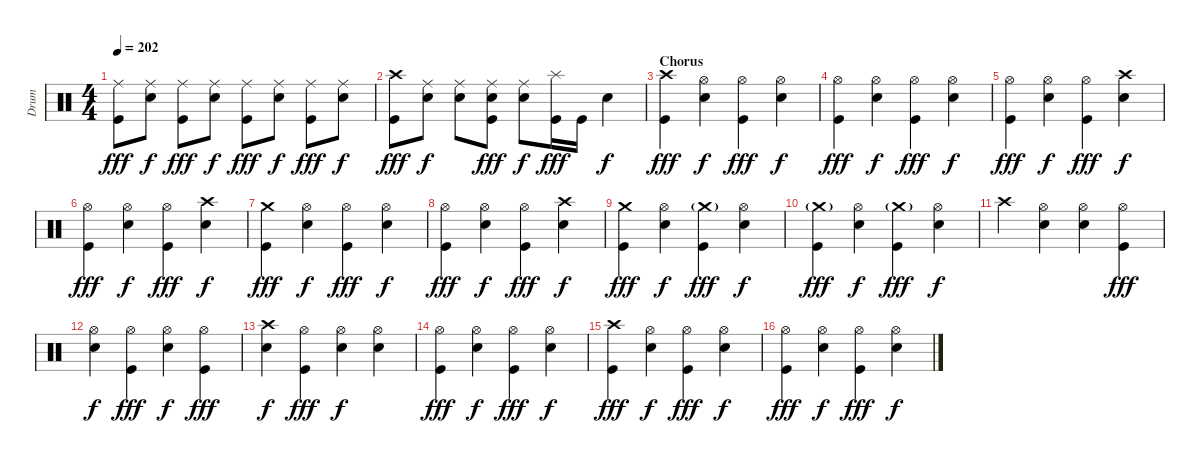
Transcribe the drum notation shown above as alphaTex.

\track ("Drum" "Drum") {instrument percussion}
\staff {score}
\articulation defaults
\ts (4 4)
\tempo 202
\clef neutral
\ks c
("Ride (middle)" "Kick (hit)").8{dy fff} ("Ride (middle)" "Electric Snare (hit)").8{dy f} ("Ride (middle)" "Kick (hit)").8{dy fff} ("Ride (middle)" "Electric Snare (hit)").8{dy f} ("Ride (middle)" "Kick (hit)").8{dy fff} ("Ride (middle)" "Electric Snare (hit)").8{dy f} ("Ride (middle)" "Kick (hit)").8{dy fff} ("Ride (middle)" "Electric Snare (hit)").8{dy f} |
("Crash high (hit)" "Kick (hit)").8{dy fff} ("Ride (middle)" "Electric Snare (hit)").8{dy f} ("Ride (middle)" "Electric Snare (hit)").8 ("Ride (middle)" "Electric Snare (hit)" "Kick (hit)").8{dy fff} ("Ride (middle)" "Electric Snare (hit)").8{dy f} ("Splash (hit)" "Kick (hit)").16{dy fff} "Kick (hit)".16 "Electric Snare (hit)".4{dy f} |
\section ("" "Chorus")
("Crash high (hit)" "Kick (hit)").4{dy fff} ("Hi-Hat (open)" "Electric Snare (hit)").4{dy f} ("Hi-Hat (open)" "Kick (hit)").4{dy fff} ("Hi-Hat (open)" "Electric Snare (hit)").4{dy f} |
("Hi-Hat (open)" "Kick (hit)").4{dy fff} ("Hi-Hat (open)" "Electric Snare (hit)").4{dy f} ("Hi-Hat (open)" "Kick (hit)").4{dy fff} ("Hi-Hat (open)" "Electric Snare (hit)").4{dy f} |
("Hi-Hat (open)" "Kick (hit)").4{dy fff} ("Hi-Hat (open)" "Electric Snare (hit)").4{dy f} ("Hi-Hat (open)" "Kick (hit)").4{dy fff} ("Crash high (hit)" "Electric Snare (hit)").4{dy f} |
("Hi-Hat (open)" "Kick (hit)").4{dy fff} ("Hi-Hat (open)" "Electric Snare (hit)").4{dy f} ("Hi-Hat (open)" "Kick (hit)").4{dy fff} ("Crash high (hit)" "Electric Snare (hit)").4{dy f} |
("Crash medium (hit)" "Kick (hit)").4{dy fff} ("Hi-Hat (open)" "Electric Snare (hit)").4{dy f} ("Hi-Hat (open)" "Kick (hit)").4{dy fff} ("Hi-Hat (open)" "Electric Snare (hit)").4{dy f} |
("Hi-Hat (open)" "Kick (hit)").4{dy fff} ("Hi-Hat (open)" "Electric Snare (hit)").4{dy f} ("Hi-Hat (open)" "Kick (hit)").4{dy fff} ("Crash high (hit)" "Electric Snare (hit)").4{dy f} |
("Crash medium (hit)" "Kick (hit)").4{dy fff} ("Hi-Hat (open)" "Electric Snare (hit)").4{dy f} ("Crash medium (hit)"{g} "Kick (hit)").4{dy fff} ("Hi-Hat (open)" "Electric Snare (hit)").4{dy f} |
("Crash medium (hit)"{g} "Kick (hit)").4{dy fff} ("Hi-Hat (open)" "Electric Snare (hit)").4{dy f} ("Crash medium (hit)"{g} "Kick (hit)").4{dy fff} ("Hi-Hat (open)" "Electric Snare (hit)").4{dy f} |
"Crash high (hit)".4 ("Hi-Hat (open)" "Electric Snare (hit)").4 ("Hi-Hat (open)" "Electric Snare (hit)").4 ("Hi-Hat (open)" "Kick (hit)").4{dy fff} |
("Hi-Hat (open)" "Electric Snare (hit)").4{dy f} ("Hi-Hat (open)" "Kick (hit)").4{dy fff} ("Hi-Hat (open)" "Electric Snare (hit)").4{dy f} ("Hi-Hat (open)" "Kick (hit)").4{dy fff} |
("Crash high (hit)" "Electric Snare (hit)").4{dy f} ("Hi-Hat (open)" "Kick (hit)").4{dy fff} ("Hi-Hat (open)" "Electric Snare (hit)").4{dy f} ("Hi-Hat (open)" "Electric Snare (hit)").4 |
("Hi-Hat (open)" "Kick (hit)").4{dy fff} ("Hi-Hat (open)" "Electric Snare (hit)").4{dy f} ("Hi-Hat (open)" "Kick (hit)").4{dy fff} ("Hi-Hat (open)" "Electric Snare (hit)").4{dy f} |
("Crash high (hit)" "Kick (hit)").4{dy fff} ("Hi-Hat (open)" "Electric Snare (hit)").4{dy f} ("Hi-Hat (open)" "Kick (hit)").4{dy fff} ("Hi-Hat (open)" "Electric Snare (hit)").4{dy f} |
("Hi-Hat (open)" "Kick (hit)").4{dy fff} ("Hi-Hat (open)" "Electric Snare (hit)").4{dy f} ("Hi-Hat (open)" "Kick (hit)").4{dy fff} ("Hi-Hat (open)" "Electric Snare (hit)").4{dy f}
